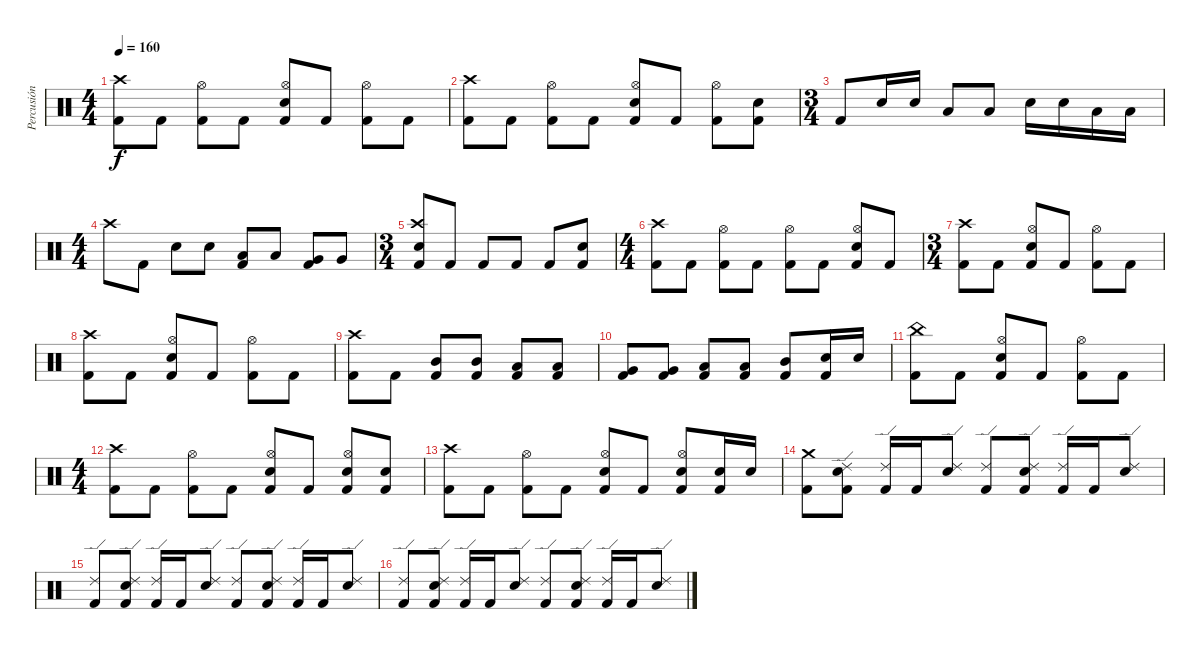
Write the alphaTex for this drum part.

\track ("Percusión" "Percusión") {instrument percussion}
\staff {score}
\articulation defaults
\ts (4 4)
\tempo 160
\clef neutral
\ks c
("Kick (hit) 2" "Crash high (hit)").8{dy f} "Kick (hit) 2".8 ("Kick (hit) 2" "Hi-Hat (open)").8 "Kick (hit) 2".8 ("Kick (hit) 2" "Snare (hit) 2" "Hi-Hat (open)").8 "Kick (hit) 2".8 ("Kick (hit) 2" "Hi-Hat (open)").8 "Kick (hit) 2".8 |
("Kick (hit) 2" "Crash high (hit)").8 "Kick (hit) 2".8 ("Kick (hit) 2" "Hi-Hat (open)").8 "Kick (hit) 2".8 ("Kick (hit) 2" "Snare (hit) 2" "Hi-Hat (open)").8 "Kick (hit) 2".8 ("Kick (hit) 2" "Hi-Hat (open)").8 ("Kick (hit) 2" "Snare (hit) 2").8 |
\ts (3 4)
"Kick (hit) 2".8 "Snare (hit) 2".16 "Snare (hit) 2".16 "Low Tom (hit)".8 "Low Tom (hit)".8 "Snare (hit) 2".16 "Snare (hit) 2".16 "Low Tom (hit)".16 "Low Tom (hit)".16 |
\ts (4 4)
"Crash high (hit)".8 "Kick (hit) 2".8 "Snare (hit) 2".8 "Snare (hit) 2".8 ("Low Tom (hit)" "Kick (hit) 2").8 "Low Tom (hit)".8 ("Very Low Tom (hit)" "Kick (hit) 2").8 "Very Low Tom (hit)".8 |
\ts (3 4)
("Crash high (hit)" "Snare (hit) 2" "Kick (hit) 2").8 "Kick (hit) 2".8 "Kick (hit) 2".8 "Kick (hit) 2".8 "Kick (hit) 2".8 ("Snare (hit) 2" "Kick (hit) 2").8 |
\ts (4 4)
("Kick (hit) 2" "Crash high (hit)").8 "Kick (hit) 2".8 ("Kick (hit) 2" "Hi-Hat (open)").8 "Kick (hit) 2".8 ("Kick (hit) 2" "Hi-Hat (open)").8 "Kick (hit) 2".8 ("Kick (hit) 2" "Snare (hit) 2" "Hi-Hat (open)").8 "Kick (hit) 2".8 |
\ts (3 4)
("Kick (hit) 2" "Crash high (hit)").8 "Kick (hit) 2".8 ("Kick (hit) 2" "Snare (hit) 2" "Hi-Hat (open)").8 "Kick (hit) 2".8 ("Kick (hit) 2" "Hi-Hat (open)").8 "Kick (hit) 2".8 |
("Kick (hit) 2" "Crash high (hit)").8 "Kick (hit) 2".8 ("Kick (hit) 2" "Snare (hit) 2" "Hi-Hat (open)").8 "Kick (hit) 2".8 ("Kick (hit) 2" "Hi-Hat (open)").8 "Kick (hit) 2".8 |
("Kick (hit) 2" "Crash high (hit)").8 "Kick (hit) 2".8 ("Kick (hit) 2" "Mid Tom (hit)").8 ("Kick (hit) 2" "Mid Tom (hit)").8 ("Kick (hit) 2" "Low Tom (hit)").8 ("Kick (hit) 2" "Low Tom (hit)").8 |
("Kick (hit) 2" "Very Low Tom (hit)").8 ("Kick (hit) 2" "Very Low Tom (hit)").8 ("Kick (hit) 2" "Low Tom (hit)").8 ("Kick (hit) 2" "Low Tom (hit)").8 ("Kick (hit) 2" "Mid Tom (hit)").8 ("Kick (hit) 2" "Snare (hit) 2").16 "Snare (hit) 2".16 |
("Kick (hit) 2" "China (hit)").8 "Kick (hit) 2".8 ("Kick (hit) 2" "Snare (hit) 2" "Hi-Hat (open)").8 "Kick (hit) 2".8 ("Kick (hit) 2" "Hi-Hat (open)").8 "Kick (hit) 2".8 |
\ts (4 4)
("Kick (hit) 2" "Crash high (hit)").8 "Kick (hit) 2".8 ("Kick (hit) 2" "Hi-Hat (open)").8 "Kick (hit) 2".8 ("Kick (hit) 2" "Snare (hit) 2" "Hi-Hat (open)").8 "Kick (hit) 2".8 ("Kick (hit) 2" "Snare (hit) 2" "Hi-Hat (open)").8 ("Kick (hit) 2" "Snare (hit) 2").8 |
("Kick (hit) 2" "Crash high (hit)").8 "Kick (hit) 2".8 ("Kick (hit) 2" "Hi-Hat (open)").8 "Kick (hit) 2".8 ("Kick (hit) 2" "Snare (hit) 2" "Hi-Hat (open)").8 "Kick (hit) 2".8 ("Kick (hit) 2" "Snare (hit) 2" "Hi-Hat (open)").8 ("Kick (hit) 2" "Snare (hit) 2").16 "Snare (hit) 2".16 |
("Kick (hit) 2" "Crash medium (hit)").8 ("Kick (hit) 2" "Snare (hit) 2" "Ride (edge) 2").8 ("Kick (hit) 2" "Ride (edge) 2").16 "Kick (hit) 2".16 ("Snare (hit) 2" "Ride (edge) 2").8 ("Kick (hit) 2" "Ride (edge) 2").8 ("Kick (hit) 2" "Snare (hit) 2" "Ride (edge) 2").8 ("Kick (hit) 2" "Ride (edge) 2").16 "Kick (hit) 2".16 ("Snare (hit) 2" "Ride (edge) 2").8 |
("Kick (hit) 2" "Ride (edge) 2").8 ("Kick (hit) 2" "Snare (hit) 2" "Ride (edge) 2").8 ("Kick (hit) 2" "Ride (edge) 2").16 "Kick (hit) 2".16 ("Snare (hit) 2" "Ride (edge) 2").8 ("Kick (hit) 2" "Ride (edge) 2").8 ("Kick (hit) 2" "Snare (hit) 2" "Ride (edge) 2").8 ("Kick (hit) 2" "Ride (edge) 2").16 "Kick (hit) 2".16 ("Snare (hit) 2" "Ride (edge) 2").8 |
("Kick (hit) 2" "Ride (edge) 2").8 ("Kick (hit) 2" "Snare (hit) 2" "Ride (edge) 2").8 ("Kick (hit) 2" "Ride (edge) 2").16 "Kick (hit) 2".16 ("Snare (hit) 2" "Ride (edge) 2").8 ("Kick (hit) 2" "Ride (edge) 2").8 ("Kick (hit) 2" "Snare (hit) 2" "Ride (edge) 2").8 ("Kick (hit) 2" "Ride (edge) 2").16 "Kick (hit) 2".16 ("Snare (hit) 2" "Ride (edge) 2").8
